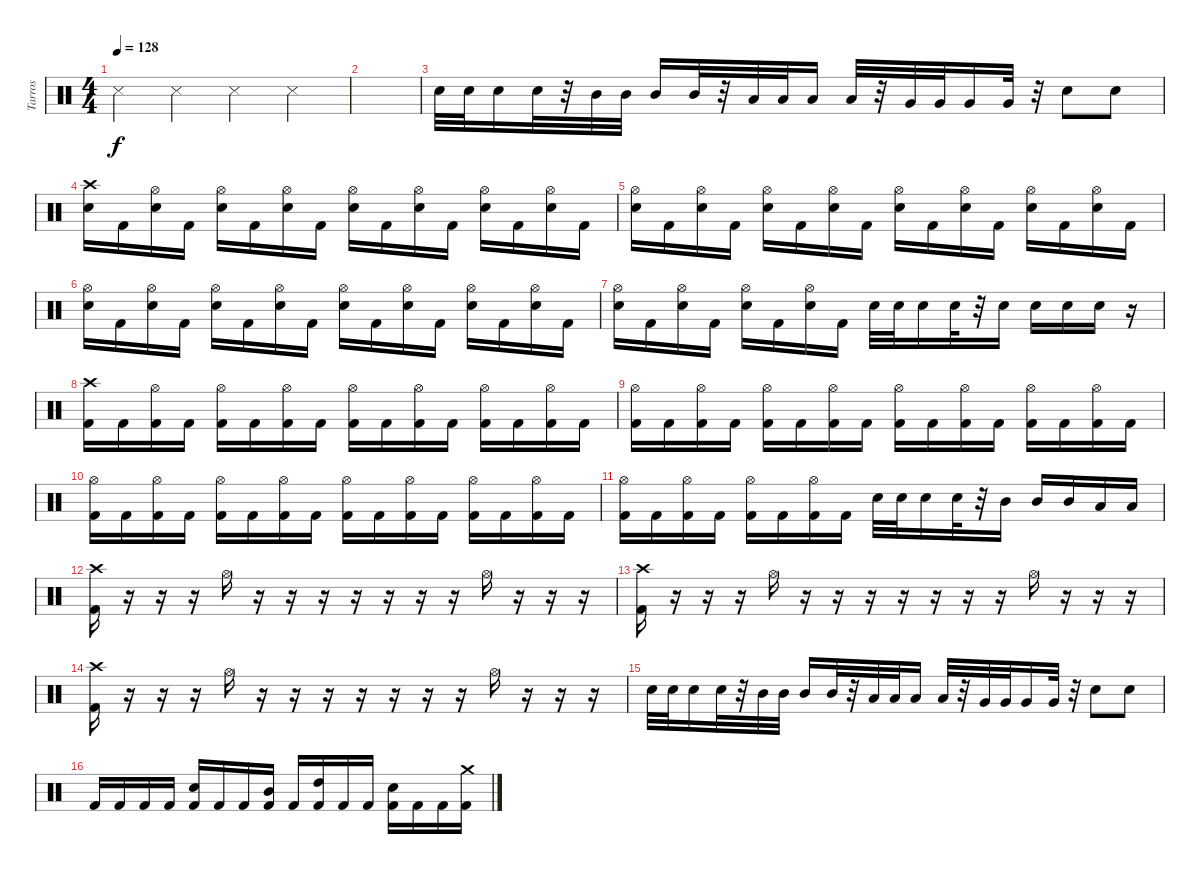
\track ("Tarros" "Tarros") {instrument percussion}
\staff {score}
\articulation defaults
\ts (4 4)
\tempo 128
\clef neutral
\ks c "Snare (side stick) 3".4{dy f} "Snare (side stick) 3".4 "Snare (side stick) 3".4 "Snare (side stick) 3".4
|
|
"Electric Snare (hit)".32 "Electric Snare (hit)".32 "Electric Snare (hit)".16 "Electric Snare (hit)".32 r.32 "Mid Tom (hit)".32 "Mid Tom (hit)".32 "Mid Tom (hit)".16 "Mid Tom (hit)".32 r.32 "Low Tom (hit)".32 "Low Tom (hit)".32 "Low Tom (hit)".16 "Low Tom (hit)".32 r.32 "Very Low Tom (hit)".32 "Very Low Tom (hit)".32 "Very Low Tom (hit)".16 "Very Low Tom (hit)".32 r.32 "Electric Snare (hit)".8 "Electric Snare (hit)".8 |
("Crash high (hit)" "Electric Snare (hit)").16 "Kick (hit) 2".16 ("Hi-Hat (open)" "Electric Snare (hit)").16 "Kick (hit) 2".16 ("Hi-Hat (open)" "Electric Snare (hit)").16 "Kick (hit) 2".16 ("Hi-Hat (open)" "Electric Snare (hit)").16 "Kick (hit) 2".16 ("Hi-Hat (open)" "Electric Snare (hit)").16 "Kick (hit) 2".16 ("Hi-Hat (open)" "Electric Snare (hit)").16 "Kick (hit) 2".16 ("Hi-Hat (open)" "Electric Snare (hit)").16 "Kick (hit) 2".16 ("Hi-Hat (open)" "Electric Snare (hit)").16 "Kick (hit) 2".16 |
("Hi-Hat (open)" "Electric Snare (hit)").16 "Kick (hit) 2".16 ("Hi-Hat (open)" "Electric Snare (hit)").16 "Kick (hit) 2".16 ("Hi-Hat (open)" "Electric Snare (hit)").16 "Kick (hit) 2".16 ("Hi-Hat (open)" "Electric Snare (hit)").16 "Kick (hit) 2".16 ("Hi-Hat (open)" "Electric Snare (hit)").16 "Kick (hit) 2".16 ("Hi-Hat (open)" "Electric Snare (hit)").16 "Kick (hit) 2".16 ("Hi-Hat (open)" "Electric Snare (hit)").16 "Kick (hit) 2".16 ("Hi-Hat (open)" "Electric Snare (hit)").16 "Kick (hit) 2".16 |
("Hi-Hat (open)" "Electric Snare (hit)").16 "Kick (hit) 2".16 ("Hi-Hat (open)" "Electric Snare (hit)").16 "Kick (hit) 2".16 ("Hi-Hat (open)" "Electric Snare (hit)").16 "Kick (hit) 2".16 ("Hi-Hat (open)" "Electric Snare (hit)").16 "Kick (hit) 2".16 ("Hi-Hat (open)" "Electric Snare (hit)").16 "Kick (hit) 2".16 ("Hi-Hat (open)" "Electric Snare (hit)").16 "Kick (hit) 2".16 ("Hi-Hat (open)" "Electric Snare (hit)").16 "Kick (hit) 2".16 ("Hi-Hat (open)" "Electric Snare (hit)").16 "Kick (hit) 2".16 |
("Hi-Hat (open)" "Electric Snare (hit)").16 "Kick (hit) 2".16 ("Hi-Hat (open)" "Electric Snare (hit)").16 "Kick (hit) 2".16 ("Hi-Hat (open)" "Electric Snare (hit)").16 "Kick (hit) 2".16 ("Hi-Hat (open)" "Electric Snare (hit)").16 "Kick (hit) 2".16 "Electric Snare (hit)".32 "Electric Snare (hit)".32 "Electric Snare (hit)".16 "Electric Snare (hit)".32 r.32 "Electric Snare (hit)".16 "Electric Snare (hit)".16 "Electric Snare (hit)".16 "Electric Snare (hit)".16 r.16 |
("Crash high (hit)" "Kick (hit) 2").16 "Kick (hit) 2".16 ("Hi-Hat (open)" "Kick (hit) 2").16 "Kick (hit) 2".16 ("Hi-Hat (open)" "Kick (hit) 2").16 "Kick (hit) 2".16 ("Hi-Hat (open)" "Kick (hit) 2").16 "Kick (hit) 2".16 ("Hi-Hat (open)" "Kick (hit) 2").16 "Kick (hit) 2".16 ("Hi-Hat (open)" "Kick (hit) 2").16 "Kick (hit) 2".16 ("Hi-Hat (open)" "Kick (hit) 2").16 "Kick (hit) 2".16 ("Hi-Hat (open)" "Kick (hit) 2").16 "Kick (hit) 2".16 |
("Hi-Hat (open)" "Kick (hit) 2").16 "Kick (hit) 2".16 ("Hi-Hat (open)" "Kick (hit) 2").16 "Kick (hit) 2".16 ("Hi-Hat (open)" "Kick (hit) 2").16 "Kick (hit) 2".16 ("Hi-Hat (open)" "Kick (hit) 2").16 "Kick (hit) 2".16 ("Hi-Hat (open)" "Kick (hit) 2").16 "Kick (hit) 2".16 ("Hi-Hat (open)" "Kick (hit) 2").16 "Kick (hit) 2".16 ("Hi-Hat (open)" "Kick (hit) 2").16 "Kick (hit) 2".16 ("Hi-Hat (open)" "Kick (hit) 2").16 "Kick (hit) 2".16 |
("Hi-Hat (open)" "Kick (hit) 2").16 "Kick (hit) 2".16 ("Hi-Hat (open)" "Kick (hit) 2").16 "Kick (hit) 2".16 ("Hi-Hat (open)" "Kick (hit) 2").16 "Kick (hit) 2".16 ("Hi-Hat (open)" "Kick (hit) 2").16 "Kick (hit) 2".16 ("Hi-Hat (open)" "Kick (hit) 2").16 "Kick (hit) 2".16 ("Hi-Hat (open)" "Kick (hit) 2").16 "Kick (hit) 2".16 ("Hi-Hat (open)" "Kick (hit) 2").16 "Kick (hit) 2".16 ("Hi-Hat (open)" "Kick (hit) 2").16 "Kick (hit) 2".16 |
("Hi-Hat (open)" "Kick (hit) 2").16 "Kick (hit) 2".16 ("Hi-Hat (open)" "Kick (hit) 2").16 "Kick (hit) 2".16 ("Hi-Hat (open)" "Kick (hit) 2").16 "Kick (hit) 2".16 ("Hi-Hat (open)" "Kick (hit) 2").16 "Kick (hit) 2".16 "Electric Snare (hit)".32 "Electric Snare (hit)".32 "Electric Snare (hit)".16 "Electric Snare (hit)".32 r.32 "Mid Tom (hit)".16 "Mid Tom (hit)".16 "Mid Tom (hit)".16 "Low Tom (hit)".16 "Low Tom (hit)".16 |
("Crash high (hit)" "Kick (hit) 2").16 r.16 r.16 r.16 "Hi-Hat (open)".16 r.16 r.16 r.16 r.16 r.16 r.16 r.16 "Hi-Hat (open)".16 r.16 r.16 r.16 |
("Crash high (hit)" "Kick (hit) 2").16 r.16 r.16 r.16 "Hi-Hat (open)".16 r.16 r.16 r.16 r.16 r.16 r.16 r.16 "Hi-Hat (open)".16 r.16 r.16 r.16 |
("Crash high (hit)" "Kick (hit) 2").16 r.16 r.16 r.16 "Hi-Hat (open)".16 r.16 r.16 r.16 r.16 r.16 r.16 r.16 "Hi-Hat (open)".16 r.16 r.16 r.16 |
"Electric Snare (hit)".32 "Electric Snare (hit)".32 "Electric Snare (hit)".16 "Electric Snare (hit)".32 r.32 "Mid Tom (hit)".32 "Mid Tom (hit)".32 "Mid Tom (hit)".16 "Mid Tom (hit)".32 r.32 "Low Tom (hit)".32 "Low Tom (hit)".32 "Low Tom (hit)".16 "Low Tom (hit)".32 r.32 "Very Low Tom (hit)".32 "Very Low Tom (hit)".32 "Very Low Tom (hit)".16 "Very Low Tom (hit)".32 r.32 "Electric Snare (hit)".8 "Electric Snare (hit)".8 |
"Kick (hit) 2".16 "Kick (hit) 2".16 "Kick (hit) 2".16 "Kick (hit) 2".16 ("Electric Snare (hit)" "Kick (hit) 2").16 "Kick (hit) 2".16 "Kick (hit) 2".16 ("Mid Tom (hit)" "Kick (hit) 2").16 "Kick (hit) 2".16 ("High Tom (hit)" "Kick (hit) 2").16 "Kick (hit) 2".16 "Kick (hit) 2".16 ("Electric Snare (hit)" "Kick (hit) 2").16 "Kick (hit) 2".16 "Kick (hit) 2".16 ("Crash medium (hit)" "Kick (hit) 2").16
